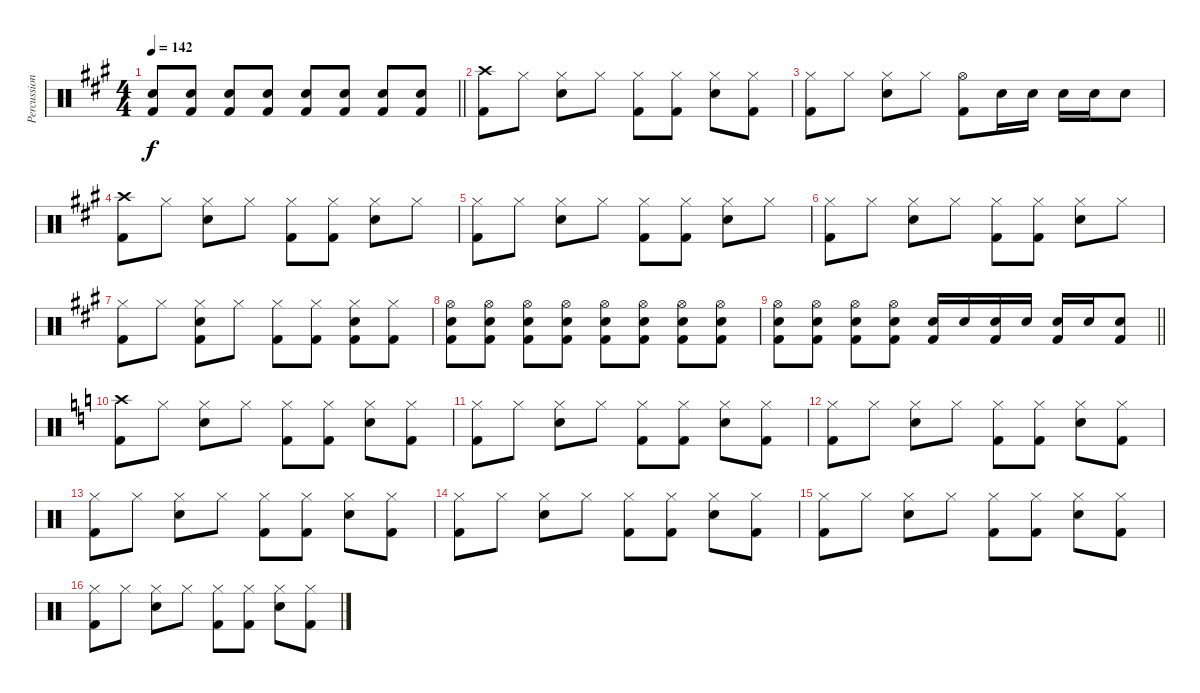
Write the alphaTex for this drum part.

\track ("Percussion" "Percussion") {instrument percussion}
\staff {score}
\articulation defaults
\ts (4 4)
\tempo 142
\clef neutral
\barLineRight lightlight
\ks a
("Snare (hit) 2" "Kick (hit) 2").8{dy f} ("Snare (hit) 2" "Kick (hit) 2").8 ("Snare (hit) 2" "Kick (hit) 2").8 ("Snare (hit) 2" "Kick (hit) 2").8 ("Snare (hit) 2" "Kick (hit) 2").8 ("Snare (hit) 2" "Kick (hit) 2").8 ("Snare (hit) 2" "Kick (hit) 2").8 ("Snare (hit) 2" "Kick (hit) 2").8 |
("Crash high (hit)" "Kick (hit) 2").8 "Hi-Hat (closed)".8 ("Hi-Hat (closed)" "Snare (hit) 2").8 "Hi-Hat (closed)".8 ("Hi-Hat (closed)" "Kick (hit) 2").8 ("Hi-Hat (closed)" "Kick (hit) 2").8 ("Hi-Hat (closed)" "Snare (hit) 2").8 ("Hi-Hat (closed)" "Kick (hit) 2").8 |
("Hi-Hat (closed)" "Kick (hit) 2").8 "Hi-Hat (closed)".8 ("Hi-Hat (closed)" "Snare (hit) 2").8 "Hi-Hat (closed)".8 ("Hi-Hat (open)" "Kick (hit) 2").8 "Snare (hit) 2".16 "Snare (hit) 2".16 "Snare (hit) 2".16 "Snare (hit) 2".16 "Snare (hit) 2".8 |
("Crash high (hit)" "Kick (hit) 2").8 "Hi-Hat (closed)".8 ("Hi-Hat (closed)" "Snare (hit) 2").8 "Hi-Hat (closed)".8 ("Hi-Hat (closed)" "Kick (hit) 2").8 ("Hi-Hat (closed)" "Kick (hit) 2").8 ("Hi-Hat (closed)" "Snare (hit) 2").8 "Hi-Hat (closed)".8 |
("Hi-Hat (closed)" "Kick (hit) 2").8 "Hi-Hat (closed)".8 ("Hi-Hat (closed)" "Snare (hit) 2").8 "Hi-Hat (closed)".8 ("Hi-Hat (closed)" "Kick (hit) 2").8 ("Hi-Hat (closed)" "Kick (hit) 2").8 ("Hi-Hat (closed)" "Snare (hit) 2").8 "Hi-Hat (closed)".8 |
("Hi-Hat (closed)" "Kick (hit) 2").8 "Hi-Hat (closed)".8 ("Hi-Hat (closed)" "Snare (hit) 2").8 "Hi-Hat (closed)".8 ("Hi-Hat (closed)" "Kick (hit) 2").8 ("Hi-Hat (closed)" "Kick (hit) 2").8 ("Hi-Hat (closed)" "Snare (hit) 2").8 "Hi-Hat (closed)".8 |
("Hi-Hat (closed)" "Kick (hit) 2").8 "Hi-Hat (closed)".8 ("Hi-Hat (closed)" "Snare (hit) 2" "Kick (hit) 2").8 "Hi-Hat (closed)".8 ("Hi-Hat (closed)" "Kick (hit) 2").8 ("Hi-Hat (closed)" "Kick (hit) 2").8 ("Hi-Hat (closed)" "Snare (hit) 2" "Kick (hit) 2").8 ("Hi-Hat (closed)" "Kick (hit) 2").8 |
("Hi-Hat (open)" "Snare (hit) 2" "Kick (hit) 2").8 ("Hi-Hat (open)" "Snare (hit) 2" "Kick (hit) 2").8 ("Hi-Hat (open)" "Snare (hit) 2" "Kick (hit) 2").8 ("Hi-Hat (open)" "Snare (hit) 2" "Kick (hit) 2").8 ("Hi-Hat (open)" "Snare (hit) 2" "Kick (hit) 2").8 ("Hi-Hat (open)" "Snare (hit) 2" "Kick (hit) 2").8 ("Hi-Hat (open)" "Snare (hit) 2" "Kick (hit) 2").8 ("Hi-Hat (open)" "Snare (hit) 2" "Kick (hit) 2").8 |
\barLineRight lightlight
("Hi-Hat (open)" "Snare (hit) 2" "Kick (hit) 2").8 ("Hi-Hat (open)" "Snare (hit) 2" "Kick (hit) 2").8 ("Hi-Hat (open)" "Snare (hit) 2" "Kick (hit) 2").8 ("Hi-Hat (open)" "Snare (hit) 2" "Kick (hit) 2").8 ("Snare (hit) 2" "Kick (hit) 2").16 "Snare (hit) 2".16 ("Snare (hit) 2" "Kick (hit) 2").16 "Snare (hit) 2".16 ("Snare (hit) 2" "Kick (hit) 2").16 "Snare (hit) 2".16 ("Snare (hit) 2" "Kick (hit) 2").8 |
\ks c
("Crash high (hit)" "Kick (hit) 2").8 "Hi-Hat (closed)".8 ("Hi-Hat (closed)" "Snare (hit) 2").8 "Hi-Hat (closed)".8 ("Hi-Hat (closed)" "Kick (hit) 2").8 ("Hi-Hat (closed)" "Kick (hit) 2").8 ("Hi-Hat (closed)" "Snare (hit) 2").8 ("Hi-Hat (closed)" "Kick (hit) 2").8 |
("Hi-Hat (closed)" "Kick (hit) 2").8 "Hi-Hat (closed)".8 ("Hi-Hat (closed)" "Snare (hit) 2").8 "Hi-Hat (closed)".8 ("Hi-Hat (closed)" "Kick (hit) 2").8 ("Hi-Hat (closed)" "Kick (hit) 2").8 ("Hi-Hat (closed)" "Snare (hit) 2").8 ("Hi-Hat (closed)" "Kick (hit) 2").8 |
("Hi-Hat (closed)" "Kick (hit) 2").8 "Hi-Hat (closed)".8 ("Hi-Hat (closed)" "Snare (hit) 2").8 "Hi-Hat (closed)".8 ("Hi-Hat (closed)" "Kick (hit) 2").8 ("Hi-Hat (closed)" "Kick (hit) 2").8 ("Hi-Hat (closed)" "Snare (hit) 2").8 ("Hi-Hat (closed)" "Kick (hit) 2").8 |
("Hi-Hat (closed)" "Kick (hit) 2").8 "Hi-Hat (closed)".8 ("Hi-Hat (closed)" "Snare (hit) 2").8 "Hi-Hat (closed)".8 ("Hi-Hat (closed)" "Kick (hit) 2").8 ("Hi-Hat (closed)" "Kick (hit) 2").8 ("Hi-Hat (closed)" "Snare (hit) 2").8 ("Hi-Hat (closed)" "Kick (hit) 2").8 |
("Hi-Hat (closed)" "Kick (hit) 2").8 "Hi-Hat (closed)".8 ("Hi-Hat (closed)" "Snare (hit) 2").8 "Hi-Hat (closed)".8 ("Hi-Hat (closed)" "Kick (hit) 2").8 ("Hi-Hat (closed)" "Kick (hit) 2").8 ("Hi-Hat (closed)" "Snare (hit) 2").8 ("Hi-Hat (closed)" "Kick (hit) 2").8 |
("Hi-Hat (closed)" "Kick (hit) 2").8 "Hi-Hat (closed)".8 ("Hi-Hat (closed)" "Snare (hit) 2").8 "Hi-Hat (closed)".8 ("Hi-Hat (closed)" "Kick (hit) 2").8 ("Hi-Hat (closed)" "Kick (hit) 2").8 ("Hi-Hat (closed)" "Snare (hit) 2").8 ("Hi-Hat (closed)" "Kick (hit) 2").8 |
("Hi-Hat (closed)" "Kick (hit) 2").8 "Hi-Hat (closed)".8 ("Hi-Hat (closed)" "Snare (hit) 2").8 "Hi-Hat (closed)".8 ("Hi-Hat (closed)" "Kick (hit) 2").8 ("Hi-Hat (closed)" "Kick (hit) 2").8 ("Hi-Hat (closed)" "Snare (hit) 2").8 ("Hi-Hat (closed)" "Kick (hit) 2").8
